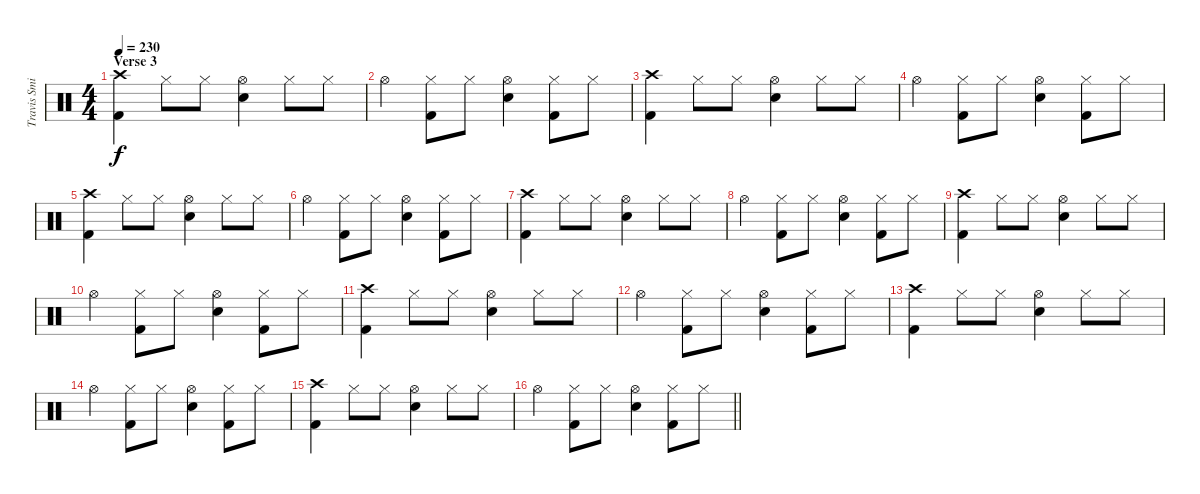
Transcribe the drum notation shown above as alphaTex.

\track ("Travis Smith" "Travis Smi") {instrument percussion}
\staff {score}
\articulation defaults
\ts (4 4)
\section ("" "Verse 3")
\tempo 230
\clef neutral
\ks c
("Kick (hit) 2" "Crash high (hit)").4{dy f} "Hi-Hat (closed)".8 "Hi-Hat (closed)".8 ("Hi-Hat (open)" "Snare (hit) 2").4 "Hi-Hat (closed)".8 "Hi-Hat (closed)".8 |
"Hi-Hat (open)".4 ("Hi-Hat (closed)" "Kick (hit) 2").8 "Hi-Hat (closed)".8 ("Hi-Hat (open)" "Snare (hit) 2").4 ("Hi-Hat (closed)" "Kick (hit) 2").8 "Hi-Hat (closed)".8 |
("Kick (hit) 2" "Crash high (hit)").4 "Hi-Hat (closed)".8 "Hi-Hat (closed)".8 ("Hi-Hat (open)" "Snare (hit) 2").4 "Hi-Hat (closed)".8 "Hi-Hat (closed)".8 |
"Hi-Hat (open)".4 ("Hi-Hat (closed)" "Kick (hit) 2").8 "Hi-Hat (closed)".8 ("Hi-Hat (open)" "Snare (hit) 2").4 ("Hi-Hat (closed)" "Kick (hit) 2").8 "Hi-Hat (closed)".8 |
("Kick (hit) 2" "Crash high (hit)").4 "Hi-Hat (closed)".8 "Hi-Hat (closed)".8 ("Hi-Hat (open)" "Snare (hit) 2").4 "Hi-Hat (closed)".8 "Hi-Hat (closed)".8 |
"Hi-Hat (open)".4 ("Hi-Hat (closed)" "Kick (hit) 2").8 "Hi-Hat (closed)".8 ("Hi-Hat (open)" "Snare (hit) 2").4 ("Hi-Hat (closed)" "Kick (hit) 2").8 "Hi-Hat (closed)".8 |
("Kick (hit) 2" "Crash high (hit)").4 "Hi-Hat (closed)".8 "Hi-Hat (closed)".8 ("Hi-Hat (open)" "Snare (hit) 2").4 "Hi-Hat (closed)".8 "Hi-Hat (closed)".8 |
"Hi-Hat (open)".4 ("Hi-Hat (closed)" "Kick (hit) 2").8 "Hi-Hat (closed)".8 ("Hi-Hat (open)" "Snare (hit) 2").4 ("Hi-Hat (closed)" "Kick (hit) 2").8 "Hi-Hat (closed)".8 |
("Kick (hit) 2" "Crash high (hit)").4 "Hi-Hat (closed)".8 "Hi-Hat (closed)".8 ("Hi-Hat (open)" "Snare (hit) 2").4 "Hi-Hat (closed)".8 "Hi-Hat (closed)".8 |
"Hi-Hat (open)".4 ("Hi-Hat (closed)" "Kick (hit) 2").8 "Hi-Hat (closed)".8 ("Hi-Hat (open)" "Snare (hit) 2").4 ("Hi-Hat (closed)" "Kick (hit) 2").8 "Hi-Hat (closed)".8 |
("Kick (hit) 2" "Crash high (hit)").4 "Hi-Hat (closed)".8 "Hi-Hat (closed)".8 ("Hi-Hat (open)" "Snare (hit) 2").4 "Hi-Hat (closed)".8 "Hi-Hat (closed)".8 |
"Hi-Hat (open)".4 ("Hi-Hat (closed)" "Kick (hit) 2").8 "Hi-Hat (closed)".8 ("Hi-Hat (open)" "Snare (hit) 2").4 ("Hi-Hat (closed)" "Kick (hit) 2").8 "Hi-Hat (closed)".8 |
("Kick (hit) 2" "Crash high (hit)").4 "Hi-Hat (closed)".8 "Hi-Hat (closed)".8 ("Hi-Hat (open)" "Snare (hit) 2").4 "Hi-Hat (closed)".8 "Hi-Hat (closed)".8 |
"Hi-Hat (open)".4 ("Hi-Hat (closed)" "Kick (hit) 2").8 "Hi-Hat (closed)".8 ("Hi-Hat (open)" "Snare (hit) 2").4 ("Hi-Hat (closed)" "Kick (hit) 2").8 "Hi-Hat (closed)".8 |
("Kick (hit) 2" "Crash high (hit)").4 "Hi-Hat (closed)".8 "Hi-Hat (closed)".8 ("Hi-Hat (open)" "Snare (hit) 2").4 "Hi-Hat (closed)".8 "Hi-Hat (closed)".8 |
\barLineRight lightlight "Hi-Hat (open)".4
("Hi-Hat (closed)" "Kick (hit) 2").8 "Hi-Hat (closed)".8 ("Hi-Hat (open)" "Snare (hit) 2").4 ("Hi-Hat (closed)" "Kick (hit) 2").8 "Hi-Hat (closed)".8
